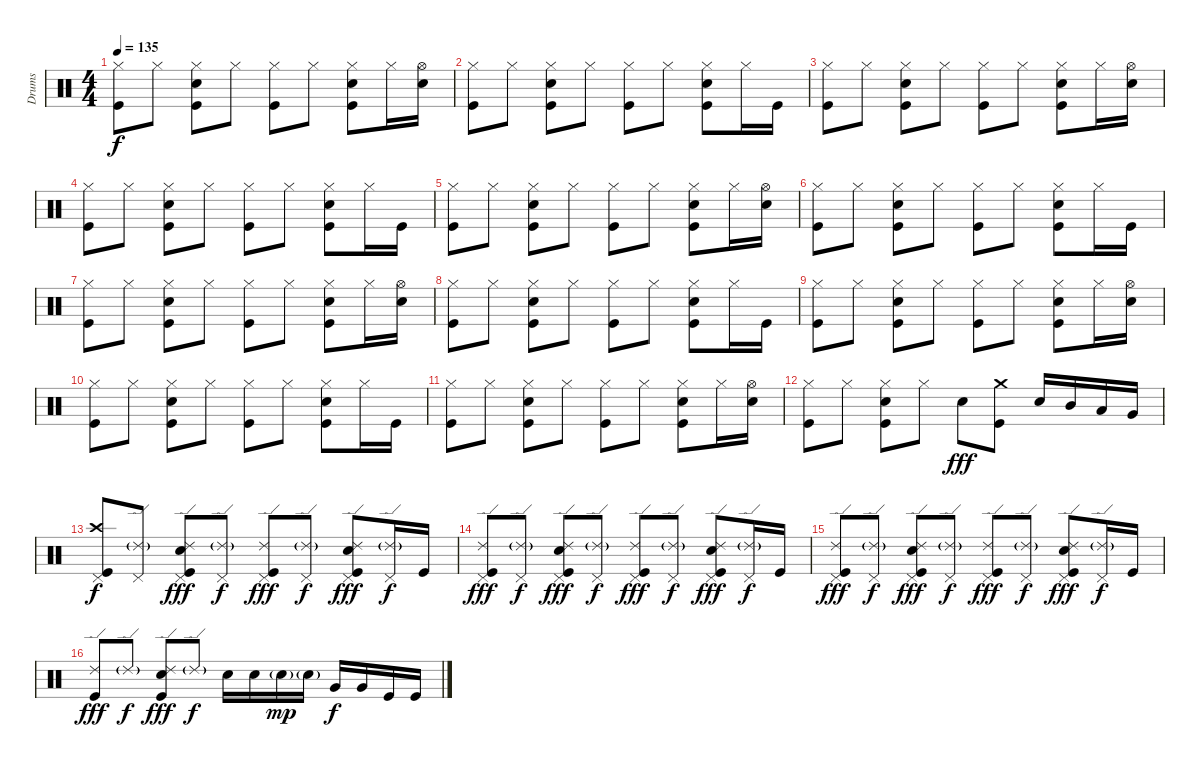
\track ("Drums" "Drums") {instrument percussion}
\staff {score}
\articulation defaults
\ts (4 4)
\tempo 135
\clef neutral
\ks c
("Kick (hit)" "Hi-Hat (closed)").8{dy f} "Hi-Hat (closed)".8 ("Kick (hit)" "Electric Snare (hit)" "Hi-Hat (closed)").8 "Hi-Hat (closed)".8 ("Kick (hit)" "Hi-Hat (closed)").8 "Hi-Hat (closed)".8 ("Kick (hit)" "Electric Snare (hit)" "Hi-Hat (closed)").8 "Hi-Hat (closed)".16 ("Electric Snare (hit)" "Hi-Hat (open)").16 |
("Kick (hit)" "Hi-Hat (closed)").8 "Hi-Hat (closed)".8 ("Kick (hit)" "Electric Snare (hit)" "Hi-Hat (closed)").8 "Hi-Hat (closed)".8 ("Kick (hit)" "Hi-Hat (closed)").8 "Hi-Hat (closed)".8 ("Kick (hit)" "Electric Snare (hit)" "Hi-Hat (closed)").8 "Hi-Hat (closed)".16 "Kick (hit)".16 |
("Kick (hit)" "Hi-Hat (closed)").8 "Hi-Hat (closed)".8 ("Kick (hit)" "Electric Snare (hit)" "Hi-Hat (closed)").8 "Hi-Hat (closed)".8 ("Kick (hit)" "Hi-Hat (closed)").8 "Hi-Hat (closed)".8 ("Kick (hit)" "Electric Snare (hit)" "Hi-Hat (closed)").8 "Hi-Hat (closed)".16 ("Electric Snare (hit)" "Hi-Hat (open)").16 |
("Kick (hit)" "Hi-Hat (closed)").8 "Hi-Hat (closed)".8 ("Kick (hit)" "Electric Snare (hit)" "Hi-Hat (closed)").8 "Hi-Hat (closed)".8 ("Kick (hit)" "Hi-Hat (closed)").8 "Hi-Hat (closed)".8 ("Kick (hit)" "Electric Snare (hit)" "Hi-Hat (closed)").8 "Hi-Hat (closed)".16 "Kick (hit)".16 |
("Kick (hit)" "Hi-Hat (closed)").8 "Hi-Hat (closed)".8 ("Kick (hit)" "Electric Snare (hit)" "Hi-Hat (closed)").8 "Hi-Hat (closed)".8 ("Kick (hit)" "Hi-Hat (closed)").8 "Hi-Hat (closed)".8 ("Kick (hit)" "Electric Snare (hit)" "Hi-Hat (closed)").8 "Hi-Hat (closed)".16 ("Electric Snare (hit)" "Hi-Hat (open)").16 |
("Kick (hit)" "Hi-Hat (closed)").8 "Hi-Hat (closed)".8 ("Kick (hit)" "Electric Snare (hit)" "Hi-Hat (closed)").8 "Hi-Hat (closed)".8 ("Kick (hit)" "Hi-Hat (closed)").8 "Hi-Hat (closed)".8 ("Kick (hit)" "Electric Snare (hit)" "Hi-Hat (closed)").8 "Hi-Hat (closed)".16 "Kick (hit)".16 |
("Kick (hit)" "Hi-Hat (closed)").8 "Hi-Hat (closed)".8 ("Kick (hit)" "Electric Snare (hit)" "Hi-Hat (closed)").8 "Hi-Hat (closed)".8 ("Kick (hit)" "Hi-Hat (closed)").8 "Hi-Hat (closed)".8 ("Kick (hit)" "Electric Snare (hit)" "Hi-Hat (closed)").8 "Hi-Hat (closed)".16 ("Electric Snare (hit)" "Hi-Hat (open)").16 |
("Kick (hit)" "Hi-Hat (closed)").8 "Hi-Hat (closed)".8 ("Kick (hit)" "Electric Snare (hit)" "Hi-Hat (closed)").8 "Hi-Hat (closed)".8 ("Kick (hit)" "Hi-Hat (closed)").8 "Hi-Hat (closed)".8 ("Kick (hit)" "Electric Snare (hit)" "Hi-Hat (closed)").8 "Hi-Hat (closed)".16 "Kick (hit)".16 |
("Kick (hit)" "Hi-Hat (closed)").8 "Hi-Hat (closed)".8 ("Kick (hit)" "Electric Snare (hit)" "Hi-Hat (closed)").8 "Hi-Hat (closed)".8 ("Kick (hit)" "Hi-Hat (closed)").8 "Hi-Hat (closed)".8 ("Kick (hit)" "Electric Snare (hit)" "Hi-Hat (closed)").8 "Hi-Hat (closed)".16 ("Electric Snare (hit)" "Hi-Hat (open)").16 |
("Kick (hit)" "Hi-Hat (closed)").8 "Hi-Hat (closed)".8 ("Kick (hit)" "Electric Snare (hit)" "Hi-Hat (closed)").8 "Hi-Hat (closed)".8 ("Kick (hit)" "Hi-Hat (closed)").8 "Hi-Hat (closed)".8 ("Kick (hit)" "Electric Snare (hit)" "Hi-Hat (closed)").8 "Hi-Hat (closed)".16 "Kick (hit)".16 |
("Kick (hit)" "Hi-Hat (closed)").8 "Hi-Hat (closed)".8 ("Kick (hit)" "Electric Snare (hit)" "Hi-Hat (closed)").8 "Hi-Hat (closed)".8 ("Kick (hit)" "Hi-Hat (closed)").8 "Hi-Hat (closed)".8 ("Kick (hit)" "Electric Snare (hit)" "Hi-Hat (closed)").8 "Hi-Hat (closed)".16 ("Electric Snare (hit)" "Hi-Hat (open)").16 |
("Kick (hit)" "Hi-Hat (closed)").8 "Hi-Hat (closed)".8 ("Kick (hit)" "Electric Snare (hit)" "Hi-Hat (closed)").8 "Hi-Hat (closed)".8 "Electric Snare (hit)".8{dy fff} ("Kick (hit)" "Crash medium (hit)").8 "Electric Snare (hit)".16 "Mid Tom (hit)".16 "Low Tom (hit)".16 "Very Low Tom (hit)".16 |
("Kick (hit)" "Crash high (hit)" "Pedal Hi-Hat (hit)").8{dy f} ("Ride (edge) 2"{g} "Pedal Hi-Hat (hit)").8 ("Kick (hit)" "Electric Snare (hit)" "Ride (edge) 2" "Pedal Hi-Hat (hit)").8{dy fff} ("Ride (edge) 2"{g} "Pedal Hi-Hat (hit)").8{dy f} ("Kick (hit)" "Ride (edge) 2" "Pedal Hi-Hat (hit)").8{dy fff} ("Ride (edge) 2"{g} "Pedal Hi-Hat (hit)").8{dy f} ("Kick (hit)" "Electric Snare (hit)" "Ride (edge) 2" "Pedal Hi-Hat (hit)").8{dy fff} ("Ride (edge) 2"{g} "Pedal Hi-Hat (hit)").16{dy f} "Kick (hit)".16 |
("Kick (hit)" "Ride (edge) 2" "Pedal Hi-Hat (hit)").8{dy fff} ("Ride (edge) 2"{g} "Pedal Hi-Hat (hit)").8{dy f} ("Kick (hit)" "Electric Snare (hit)" "Ride (edge) 2" "Pedal Hi-Hat (hit)").8{dy fff} ("Ride (edge) 2"{g} "Pedal Hi-Hat (hit)").8{dy f} ("Kick (hit)" "Ride (edge) 2" "Pedal Hi-Hat (hit)").8{dy fff} ("Ride (edge) 2"{g} "Pedal Hi-Hat (hit)").8{dy f} ("Kick (hit)" "Electric Snare (hit)" "Ride (edge) 2" "Pedal Hi-Hat (hit)").8{dy fff} ("Ride (edge) 2"{g} "Pedal Hi-Hat (hit)").16{dy f} "Kick (hit)".16 |
("Kick (hit)" "Ride (edge) 2" "Pedal Hi-Hat (hit)").8{dy fff} ("Ride (edge) 2"{g} "Pedal Hi-Hat (hit)").8{dy f} ("Kick (hit)" "Electric Snare (hit)" "Ride (edge) 2" "Pedal Hi-Hat (hit)").8{dy fff} ("Ride (edge) 2"{g} "Pedal Hi-Hat (hit)").8{dy f} ("Kick (hit)" "Ride (edge) 2" "Pedal Hi-Hat (hit)").8{dy fff} ("Ride (edge) 2"{g} "Pedal Hi-Hat (hit)").8{dy f} ("Kick (hit)" "Electric Snare (hit)" "Ride (edge) 2" "Pedal Hi-Hat (hit)").8{dy fff} ("Ride (edge) 2"{g} "Pedal Hi-Hat (hit)").16{dy f} "Kick (hit)".16 |
("Kick (hit)" "Ride (edge) 2").8{dy fff} "Ride (edge) 2"{g}.8{dy f} ("Kick (hit)" "Electric Snare (hit)" "Ride (edge) 2").8{dy fff} "Ride (edge) 2"{g}.8{dy f} "Electric Snare (hit)".16 "Electric Snare (hit)".16 "Electric Snare (hit)"{g}.16{dy mp} "Electric Snare (hit)"{g}.16 "Very Low Tom (hit)".16{dy f} "Very Low Tom (hit)".16 "Kick (hit)".16 "Kick (hit)".16
